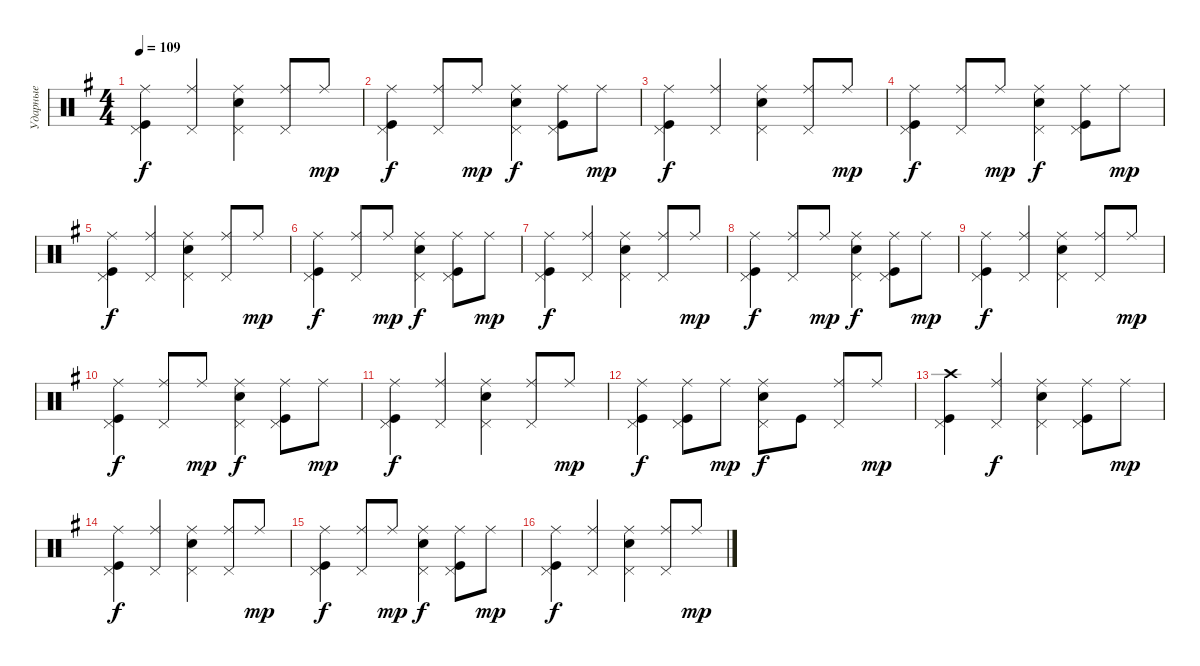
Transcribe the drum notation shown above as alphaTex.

\track ("Ударные" "Ударные") {instrument percussion}
\staff {score}
\articulation defaults
\ts (4 4)
\tempo 109
\clef neutral
\ks eminor
("Ride (middle)" "Pedal Hi-Hat (hit)" "Kick (hit)").4{dy f} ("Ride (middle)" "Pedal Hi-Hat (hit)").4 ("Ride (middle)" "Pedal Hi-Hat (hit)" "Snare (hit) 2").4 ("Ride (middle)" "Pedal Hi-Hat (hit)").8 "Ride (middle)".8{dy mp} |
("Ride (middle)" "Pedal Hi-Hat (hit)" "Kick (hit)").4{dy f} ("Ride (middle)" "Pedal Hi-Hat (hit)").8 "Ride (middle)".8{dy mp} ("Ride (middle)" "Pedal Hi-Hat (hit)" "Snare (hit) 2").4{dy f} ("Ride (middle)" "Pedal Hi-Hat (hit)" "Kick (hit)").8 "Ride (middle)".8{dy mp} |
("Ride (middle)" "Pedal Hi-Hat (hit)" "Kick (hit)").4{dy f} ("Ride (middle)" "Pedal Hi-Hat (hit)").4 ("Ride (middle)" "Pedal Hi-Hat (hit)" "Snare (hit) 2").4 ("Ride (middle)" "Pedal Hi-Hat (hit)").8 "Ride (middle)".8{dy mp} |
("Ride (middle)" "Pedal Hi-Hat (hit)" "Kick (hit)").4{dy f} ("Ride (middle)" "Pedal Hi-Hat (hit)").8 "Ride (middle)".8{dy mp} ("Ride (middle)" "Pedal Hi-Hat (hit)" "Snare (hit) 2").4{dy f} ("Ride (middle)" "Pedal Hi-Hat (hit)" "Kick (hit)").8 "Ride (middle)".8{dy mp} |
("Ride (middle)" "Pedal Hi-Hat (hit)" "Kick (hit)").4{dy f} ("Ride (middle)" "Pedal Hi-Hat (hit)").4 ("Ride (middle)" "Pedal Hi-Hat (hit)" "Snare (hit) 2").4 ("Ride (middle)" "Pedal Hi-Hat (hit)").8 "Ride (middle)".8{dy mp} |
("Ride (middle)" "Pedal Hi-Hat (hit)" "Kick (hit)").4{dy f} ("Ride (middle)" "Pedal Hi-Hat (hit)").8 "Ride (middle)".8{dy mp} ("Ride (middle)" "Pedal Hi-Hat (hit)" "Snare (hit) 2").4{dy f} ("Ride (middle)" "Pedal Hi-Hat (hit)" "Kick (hit)").8 "Ride (middle)".8{dy mp} |
("Ride (middle)" "Pedal Hi-Hat (hit)" "Kick (hit)").4{dy f} ("Ride (middle)" "Pedal Hi-Hat (hit)").4 ("Ride (middle)" "Pedal Hi-Hat (hit)" "Snare (hit) 2").4 ("Ride (middle)" "Pedal Hi-Hat (hit)").8 "Ride (middle)".8{dy mp} |
("Ride (middle)" "Pedal Hi-Hat (hit)" "Kick (hit)").4{dy f} ("Ride (middle)" "Pedal Hi-Hat (hit)").8 "Ride (middle)".8{dy mp} ("Ride (middle)" "Pedal Hi-Hat (hit)" "Snare (hit) 2").4{dy f} ("Ride (middle)" "Pedal Hi-Hat (hit)" "Kick (hit)").8 "Ride (middle)".8{dy mp} |
("Ride (middle)" "Pedal Hi-Hat (hit)" "Kick (hit)").4{dy f} ("Ride (middle)" "Pedal Hi-Hat (hit)").4 ("Ride (middle)" "Pedal Hi-Hat (hit)" "Snare (hit) 2").4 ("Ride (middle)" "Pedal Hi-Hat (hit)").8 "Ride (middle)".8{dy mp} |
("Ride (middle)" "Pedal Hi-Hat (hit)" "Kick (hit)").4{dy f} ("Ride (middle)" "Pedal Hi-Hat (hit)").8 "Ride (middle)".8{dy mp} ("Ride (middle)" "Pedal Hi-Hat (hit)" "Snare (hit) 2").4{dy f} ("Ride (middle)" "Pedal Hi-Hat (hit)" "Kick (hit)").8 "Ride (middle)".8{dy mp} |
("Ride (middle)" "Pedal Hi-Hat (hit)" "Kick (hit)").4{dy f} ("Ride (middle)" "Pedal Hi-Hat (hit)").4 ("Ride (middle)" "Pedal Hi-Hat (hit)" "Snare (hit) 2").4 ("Ride (middle)" "Pedal Hi-Hat (hit)").8 "Ride (middle)".8{dy mp} |
("Ride (middle)" "Pedal Hi-Hat (hit)" "Kick (hit)").4{dy f} ("Ride (middle)" "Pedal Hi-Hat (hit)" "Kick (hit)").8 "Ride (middle)".8{dy mp} ("Ride (middle)" "Pedal Hi-Hat (hit)" "Snare (hit) 2").8{dy f} "Kick (hit)".8 ("Ride (middle)" "Pedal Hi-Hat (hit)").8 "Ride (middle)".8{dy mp} |
("Crash high (hit)" "Pedal Hi-Hat (hit)" "Kick (hit)").4 ("Ride (middle)" "Pedal Hi-Hat (hit)").4{dy f} ("Ride (middle)" "Pedal Hi-Hat (hit)" "Snare (hit) 2").4 ("Ride (middle)" "Pedal Hi-Hat (hit)" "Kick (hit)").8 "Ride (middle)".8{dy mp} |
("Ride (middle)" "Pedal Hi-Hat (hit)" "Kick (hit)").4{dy f} ("Ride (middle)" "Pedal Hi-Hat (hit)").4 ("Ride (middle)" "Pedal Hi-Hat (hit)" "Snare (hit) 2").4 ("Ride (middle)" "Pedal Hi-Hat (hit)").8 "Ride (middle)".8{dy mp} |
("Ride (middle)" "Pedal Hi-Hat (hit)" "Kick (hit)").4{dy f} ("Ride (middle)" "Pedal Hi-Hat (hit)").8 "Ride (middle)".8{dy mp} ("Ride (middle)" "Pedal Hi-Hat (hit)" "Snare (hit) 2").4{dy f} ("Ride (middle)" "Pedal Hi-Hat (hit)" "Kick (hit)").8 "Ride (middle)".8{dy mp} |
("Ride (middle)" "Pedal Hi-Hat (hit)" "Kick (hit)").4{dy f} ("Ride (middle)" "Pedal Hi-Hat (hit)").4 ("Ride (middle)" "Pedal Hi-Hat (hit)" "Snare (hit) 2").4 ("Ride (middle)" "Pedal Hi-Hat (hit)").8 "Ride (middle)".8{dy mp}
